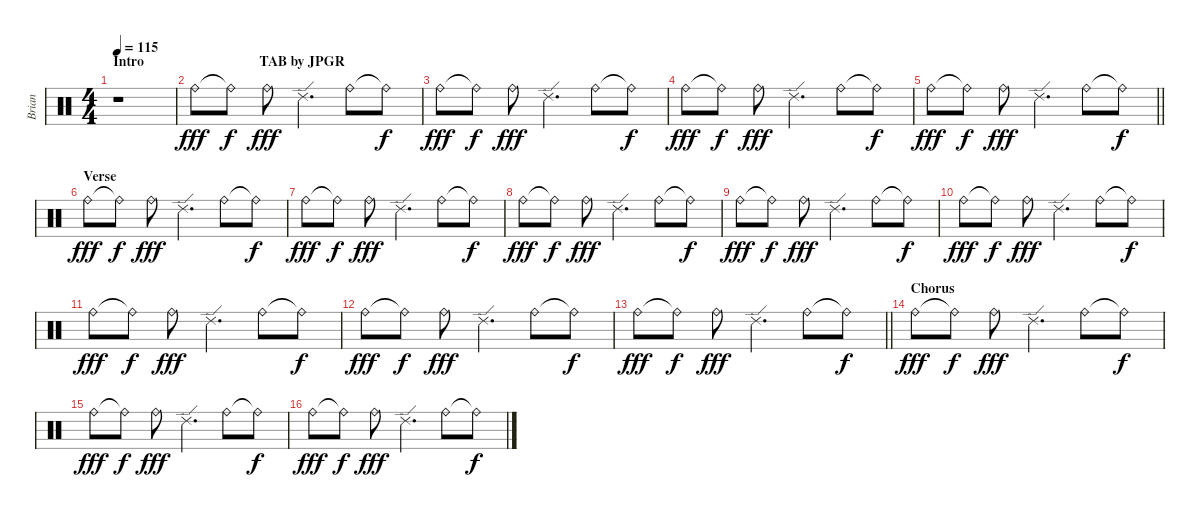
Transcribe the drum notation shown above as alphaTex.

\track ("Brian" "Brian") {instrument percussion}
\staff {score}
\articulation defaults
\ts (4 4)
\section ("" "Intro                                 TAB by JPGR")
\tempo 115
\clef neutral
\ks c
r.1{dy fff} |
"Ride (bell)".8 "Ride (bell)"{t}.8{dy f} "Ride (bell)".8{dy fff} "Ride (edge) 2".4{d} "Ride (bell)".8 "Ride (bell)"{t}.8{dy f} |
"Ride (bell)".8{dy fff} "Ride (bell)"{t}.8{dy f} "Ride (bell)".8{dy fff} "Ride (edge) 2".4{d} "Ride (bell)".8 "Ride (bell)"{t}.8{dy f} |
"Ride (bell)".8{dy fff} "Ride (bell)"{t}.8{dy f} "Ride (bell)".8{dy fff} "Ride (edge) 2".4{d} "Ride (bell)".8 "Ride (bell)"{t}.8{dy f} |
\barLineRight lightlight "Ride (bell)".8{dy fff} "Ride (bell)"{t}.8{dy f} "Ride (bell)".8{dy fff} "Ride (edge) 2".4{d} "Ride (bell)".8 "Ride (bell)"{t}.8{dy f}
|
\section ("" "Verse")
"Ride (bell)".8{dy fff} "Ride (bell)"{t}.8{dy f} "Ride (bell)".8{dy fff} "Ride (edge) 2".4{d} "Ride (bell)".8 "Ride (bell)"{t}.8{dy f} |
"Ride (bell)".8{dy fff} "Ride (bell)"{t}.8{dy f} "Ride (bell)".8{dy fff} "Ride (edge) 2".4{d} "Ride (bell)".8 "Ride (bell)"{t}.8{dy f} |
"Ride (bell)".8{dy fff} "Ride (bell)"{t}.8{dy f} "Ride (bell)".8{dy fff} "Ride (edge) 2".4{d} "Ride (bell)".8 "Ride (bell)"{t}.8{dy f} |
"Ride (bell)".8{dy fff} "Ride (bell)"{t}.8{dy f} "Ride (bell)".8{dy fff} "Ride (edge) 2".4{d} "Ride (bell)".8 "Ride (bell)"{t}.8{dy f} |
"Ride (bell)".8{dy fff} "Ride (bell)"{t}.8{dy f} "Ride (bell)".8{dy fff} "Ride (edge) 2".4{d} "Ride (bell)".8 "Ride (bell)"{t}.8{dy f} |
"Ride (bell)".8{dy fff} "Ride (bell)"{t}.8{dy f} "Ride (bell)".8{dy fff} "Ride (edge) 2".4{d} "Ride (bell)".8 "Ride (bell)"{t}.8{dy f} |
"Ride (bell)".8{dy fff} "Ride (bell)"{t}.8{dy f} "Ride (bell)".8{dy fff} "Ride (edge) 2".4{d} "Ride (bell)".8 "Ride (bell)"{t}.8{dy f} |
\barLineRight lightlight "Ride (bell)".8{dy fff} "Ride (bell)"{t}.8{dy f} "Ride (bell)".8{dy fff} "Ride (edge) 2".4{d} "Ride (bell)".8 "Ride (bell)"{t}.8{dy f}
|
\section ("" "Chorus")
"Ride (bell)".8{dy fff} "Ride (bell)"{t}.8{dy f} "Ride (bell)".8{dy fff} "Ride (edge) 2".4{d} "Ride (bell)".8 "Ride (bell)"{t}.8{dy f} |
"Ride (bell)".8{dy fff} "Ride (bell)"{t}.8{dy f} "Ride (bell)".8{dy fff} "Ride (edge) 2".4{d} "Ride (bell)".8 "Ride (bell)"{t}.8{dy f} |
"Ride (bell)".8{dy fff} "Ride (bell)"{t}.8{dy f} "Ride (bell)".8{dy fff} "Ride (edge) 2".4{d} "Ride (bell)".8 "Ride (bell)"{t}.8{dy f}
